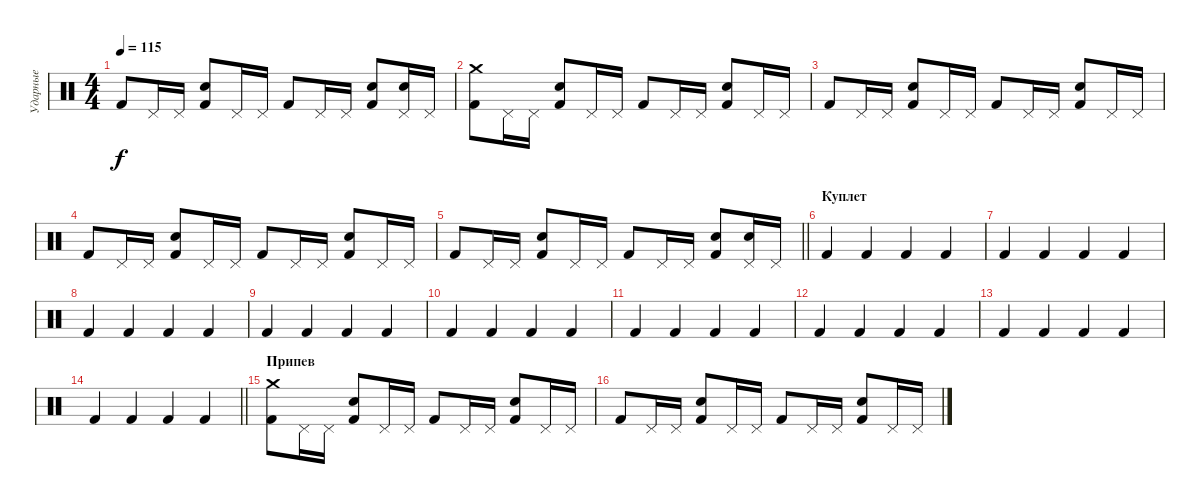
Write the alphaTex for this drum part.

\track ("Ударные" "Ударные") {instrument percussion}
\staff {score}
\articulation defaults
\ts (4 4)
\tempo 115
\clef neutral
\ks c "Kick (hit) 2".8{dy f} "Pedal Hi-Hat (hit)".16 "Pedal Hi-Hat (hit)".16
("Kick (hit) 2" "Electric Snare (hit)").8 "Pedal Hi-Hat (hit)".16 "Pedal Hi-Hat (hit)".16 "Kick (hit) 2".8 "Pedal Hi-Hat (hit)".16 "Pedal Hi-Hat (hit)".16 ("Kick (hit) 2" "Electric Snare (hit)").8 ("Pedal Hi-Hat (hit)" "Electric Snare (hit)").16 "Pedal Hi-Hat (hit)".16 |
("Kick (hit) 2" "Crash medium (hit)").8 "Pedal Hi-Hat (hit)".16 "Pedal Hi-Hat (hit)".16 ("Kick (hit) 2" "Electric Snare (hit)").8 "Pedal Hi-Hat (hit)".16 "Pedal Hi-Hat (hit)".16 "Kick (hit) 2".8 "Pedal Hi-Hat (hit)".16 "Pedal Hi-Hat (hit)".16 ("Kick (hit) 2" "Electric Snare (hit)").8 "Pedal Hi-Hat (hit)".16 "Pedal Hi-Hat (hit)".16 |
"Kick (hit) 2".8 "Pedal Hi-Hat (hit)".16 "Pedal Hi-Hat (hit)".16 ("Kick (hit) 2" "Electric Snare (hit)").8 "Pedal Hi-Hat (hit)".16 "Pedal Hi-Hat (hit)".16 "Kick (hit) 2".8 "Pedal Hi-Hat (hit)".16 "Pedal Hi-Hat (hit)".16 ("Kick (hit) 2" "Electric Snare (hit)").8 "Pedal Hi-Hat (hit)".16 "Pedal Hi-Hat (hit)".16 |
"Kick (hit) 2".8 "Pedal Hi-Hat (hit)".16 "Pedal Hi-Hat (hit)".16 ("Kick (hit) 2" "Electric Snare (hit)").8 "Pedal Hi-Hat (hit)".16 "Pedal Hi-Hat (hit)".16 "Kick (hit) 2".8 "Pedal Hi-Hat (hit)".16 "Pedal Hi-Hat (hit)".16 ("Kick (hit) 2" "Electric Snare (hit)").8 "Pedal Hi-Hat (hit)".16 "Pedal Hi-Hat (hit)".16 |
\barLineRight lightlight "Kick (hit) 2".8 "Pedal Hi-Hat (hit)".16 "Pedal Hi-Hat (hit)".16
("Kick (hit) 2" "Electric Snare (hit)").8 "Pedal Hi-Hat (hit)".16 "Pedal Hi-Hat (hit)".16 "Kick (hit) 2".8 "Pedal Hi-Hat (hit)".16 "Pedal Hi-Hat (hit)".16 ("Kick (hit) 2" "Electric Snare (hit)").8 ("Pedal Hi-Hat (hit)" "Electric Snare (hit)").16 "Pedal Hi-Hat (hit)".16 |
\section ("" "Куплет")
"Kick (hit) 2".4 "Kick (hit) 2".4 "Kick (hit) 2".4 "Kick (hit) 2".4 |
"Kick (hit) 2".4 "Kick (hit) 2".4 "Kick (hit) 2".4 "Kick (hit) 2".4 |
"Kick (hit) 2".4 "Kick (hit) 2".4 "Kick (hit) 2".4 "Kick (hit) 2".4 |
"Kick (hit) 2".4 "Kick (hit) 2".4 "Kick (hit) 2".4 "Kick (hit) 2".4 |
"Kick (hit) 2".4 "Kick (hit) 2".4 "Kick (hit) 2".4 "Kick (hit) 2".4 |
"Kick (hit) 2".4 "Kick (hit) 2".4 "Kick (hit) 2".4 "Kick (hit) 2".4 |
"Kick (hit) 2".4 "Kick (hit) 2".4 "Kick (hit) 2".4 "Kick (hit) 2".4 |
"Kick (hit) 2".4 "Kick (hit) 2".4 "Kick (hit) 2".4 "Kick (hit) 2".4 |
\barLineRight lightlight "Kick (hit) 2".4 "Kick (hit) 2".4 "Kick (hit) 2".4 "Kick (hit) 2".4
|
\section ("" "Припев")
("Kick (hit) 2" "Crash medium (hit)").8 "Pedal Hi-Hat (hit)".16 "Pedal Hi-Hat (hit)".16 ("Kick (hit) 2" "Electric Snare (hit)").8 "Pedal Hi-Hat (hit)".16 "Pedal Hi-Hat (hit)".16 "Kick (hit) 2".8 "Pedal Hi-Hat (hit)".16 "Pedal Hi-Hat (hit)".16 ("Kick (hit) 2" "Electric Snare (hit)").8 "Pedal Hi-Hat (hit)".16 "Pedal Hi-Hat (hit)".16 |
"Kick (hit) 2".8 "Pedal Hi-Hat (hit)".16 "Pedal Hi-Hat (hit)".16 ("Kick (hit) 2" "Electric Snare (hit)").8 "Pedal Hi-Hat (hit)".16 "Pedal Hi-Hat (hit)".16 "Kick (hit) 2".8 "Pedal Hi-Hat (hit)".16 "Pedal Hi-Hat (hit)".16 ("Kick (hit) 2" "Electric Snare (hit)").8 "Pedal Hi-Hat (hit)".16 "Pedal Hi-Hat (hit)".16
